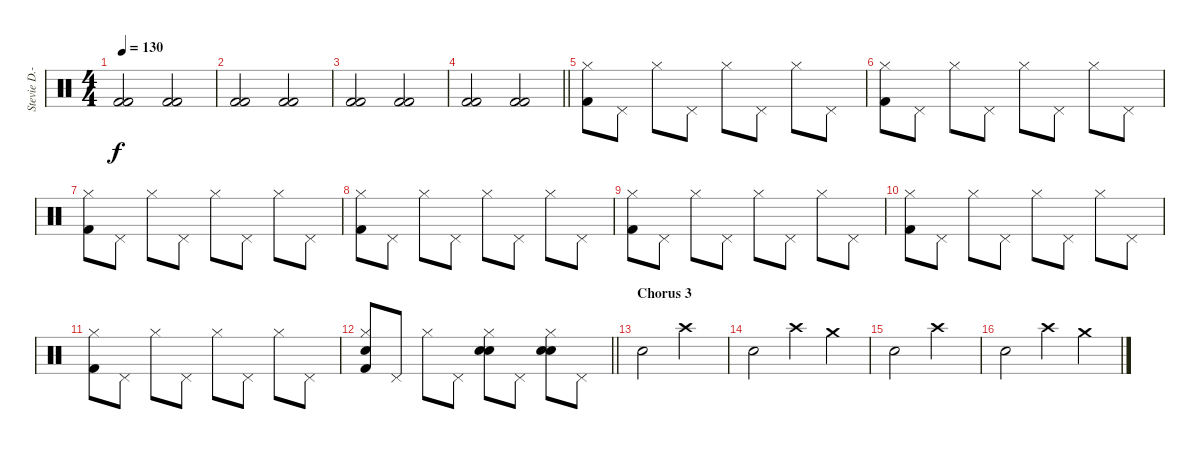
\track ("Stevie D.-Drums" "Stevie D.-") {instrument percussion}
\staff {score}
\articulation defaults
\ts (4 4)
\tempo 130
\clef neutral
\ks c
("Kick (hit) 2" "Kick (hit) 2").2{dy f} ("Kick (hit) 2" "Kick (hit) 2").2 |
("Kick (hit) 2" "Kick (hit) 2").2 ("Kick (hit) 2" "Kick (hit) 2").2 |
("Kick (hit) 2" "Kick (hit) 2").2 ("Kick (hit) 2" "Kick (hit) 2").2 |
\barLineRight lightlight
("Kick (hit) 2" "Kick (hit) 2").2 ("Kick (hit) 2" "Kick (hit) 2").2 |
("Hi-Hat (closed)" "Kick (hit) 2").8 "Pedal Hi-Hat (hit)".8 "Hi-Hat (closed)".8 "Pedal Hi-Hat (hit)".8 "Hi-Hat (closed)".8 "Pedal Hi-Hat (hit)".8 "Hi-Hat (closed)".8 "Pedal Hi-Hat (hit)".8 |
("Hi-Hat (closed)" "Kick (hit) 2").8 "Pedal Hi-Hat (hit)".8 "Hi-Hat (closed)".8 "Pedal Hi-Hat (hit)".8 "Hi-Hat (closed)".8 "Pedal Hi-Hat (hit)".8 "Hi-Hat (closed)".8 "Pedal Hi-Hat (hit)".8 |
("Hi-Hat (closed)" "Kick (hit) 2").8 "Pedal Hi-Hat (hit)".8 "Hi-Hat (closed)".8 "Pedal Hi-Hat (hit)".8 "Hi-Hat (closed)".8 "Pedal Hi-Hat (hit)".8 "Hi-Hat (closed)".8 "Pedal Hi-Hat (hit)".8 |
("Hi-Hat (closed)" "Kick (hit) 2").8 "Pedal Hi-Hat (hit)".8 "Hi-Hat (closed)".8 "Pedal Hi-Hat (hit)".8 "Hi-Hat (closed)".8 "Pedal Hi-Hat (hit)".8 "Hi-Hat (closed)".8 "Pedal Hi-Hat (hit)".8 |
("Hi-Hat (closed)" "Kick (hit) 2").8 "Pedal Hi-Hat (hit)".8 "Hi-Hat (closed)".8 "Pedal Hi-Hat (hit)".8 "Hi-Hat (closed)".8 "Pedal Hi-Hat (hit)".8 "Hi-Hat (closed)".8 "Pedal Hi-Hat (hit)".8 |
("Hi-Hat (closed)" "Kick (hit) 2").8 "Pedal Hi-Hat (hit)".8 "Hi-Hat (closed)".8 "Pedal Hi-Hat (hit)".8 "Hi-Hat (closed)".8 "Pedal Hi-Hat (hit)".8 "Hi-Hat (closed)".8 "Pedal Hi-Hat (hit)".8 |
("Hi-Hat (closed)" "Kick (hit) 2").8 "Pedal Hi-Hat (hit)".8 "Hi-Hat (closed)".8 "Pedal Hi-Hat (hit)".8 "Hi-Hat (closed)".8 "Pedal Hi-Hat (hit)".8 "Hi-Hat (closed)".8 "Pedal Hi-Hat (hit)".8 |
\barLineRight lightlight
("Hi-Hat (closed)" "Kick (hit) 2" "Snare (hit) 2").8 "Pedal Hi-Hat (hit)".8 "Hi-Hat (closed)".8 "Pedal Hi-Hat (hit)".8 ("Hi-Hat (closed)" "Electric Snare (hit)" "Snare (hit) 2").8 "Pedal Hi-Hat (hit)".8 ("Hi-Hat (closed)" "Electric Snare (hit)" "Snare (hit) 2").8 "Pedal Hi-Hat (hit)".8 |
\section ("" "Chorus 3")
"Snare (hit) 2".2 "Crash high (hit)".2 |
"Snare (hit) 2".2 "Crash high (hit)".4 "Crash medium (hit)".4 |
"Snare (hit) 2".2 "Crash high (hit)".2 |
"Snare (hit) 2".2 "Crash high (hit)".4 "Crash medium (hit)".4
